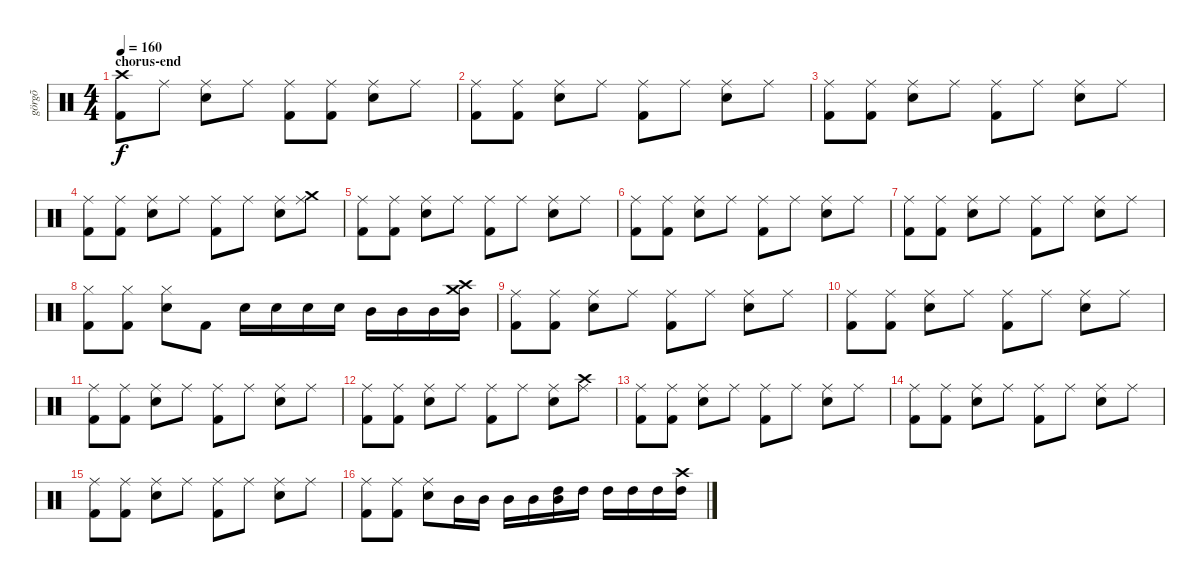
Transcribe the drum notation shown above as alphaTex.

\track ("görgõ" "görgõ") {instrument percussion}
\staff {score}
\articulation defaults
\ts (4 4)
\section ("" "chorus-end")
\tempo 160
\clef neutral
\ks c
("Crash high (hit)" "Kick (hit) 2").8{dy f} "Ride (middle)".8 ("Ride (middle)" "Snare (hit) 2").8 "Ride (middle)".8 ("Ride (middle)" "Kick (hit) 2").8 ("Ride (middle)" "Kick (hit) 2").8 ("Ride (middle)" "Snare (hit) 2").8 "Ride (middle)".8 |
("Ride (middle)" "Kick (hit) 2").8 ("Ride (middle)" "Kick (hit) 2").8 ("Ride (middle)" "Snare (hit) 2").8 "Ride (middle)".8 ("Ride (middle)" "Kick (hit) 2").8 "Ride (middle)".8 ("Ride (middle)" "Snare (hit) 2").8 "Ride (middle)".8 |
("Ride (middle)" "Kick (hit) 2").8 ("Ride (middle)" "Kick (hit) 2").8 ("Ride (middle)" "Snare (hit) 2").8 "Ride (middle)".8 ("Ride (middle)" "Kick (hit) 2").8 "Ride (middle)".8 ("Ride (middle)" "Snare (hit) 2").8 "Ride (middle)".8 |
("Ride (middle)" "Kick (hit) 2").8 ("Ride (middle)" "Kick (hit) 2").8 ("Ride (middle)" "Snare (hit) 2").8 "Ride (middle)".8 ("Ride (middle)" "Kick (hit) 2").8 "Ride (middle)".8 ("Ride (middle)" "Snare (hit) 2").8 ("Ride (middle)" "Crash medium (hit)").8 |
("Ride (middle)" "Kick (hit) 2").8 ("Ride (middle)" "Kick (hit) 2").8 ("Ride (middle)" "Snare (hit) 2").8 "Ride (middle)".8 ("Ride (middle)" "Kick (hit) 2").8 "Ride (middle)".8 ("Ride (middle)" "Snare (hit) 2").8 "Ride (middle)".8 |
("Ride (middle)" "Kick (hit) 2").8 ("Ride (middle)" "Kick (hit) 2").8 ("Ride (middle)" "Snare (hit) 2").8 "Ride (middle)".8 ("Ride (middle)" "Kick (hit) 2").8 "Ride (middle)".8 ("Ride (middle)" "Snare (hit) 2").8 "Ride (middle)".8 |
("Ride (middle)" "Kick (hit) 2").8 ("Ride (middle)" "Kick (hit) 2").8 ("Ride (middle)" "Snare (hit) 2").8 "Ride (middle)".8 ("Ride (middle)" "Kick (hit) 2").8 "Ride (middle)".8 ("Ride (middle)" "Snare (hit) 2").8 "Ride (middle)".8 |
("Hi-Hat (closed)" "Kick (hit) 2").8 ("Hi-Hat (closed)" "Kick (hit) 2").8 ("Hi-Hat (closed)" "Snare (hit) 2").8 "Kick (hit) 2".8 "Snare (hit) 2".16 "Snare (hit) 2".16 "Snare (hit) 2".16 "Snare (hit) 2".16 "Mid Tom (hit)".16 "Mid Tom (hit)".16 "Mid Tom (hit)".16 ("Mid Tom (hit)" "Crash high (hit)" "Crash medium (hit)").16 |
("Ride (middle)" "Kick (hit) 2").8 ("Ride (middle)" "Kick (hit) 2").8 ("Ride (middle)" "Snare (hit) 2").8 "Ride (middle)".8 ("Ride (middle)" "Kick (hit) 2").8 "Ride (middle)".8 ("Ride (middle)" "Snare (hit) 2").8 "Ride (middle)".8 |
("Ride (middle)" "Kick (hit) 2").8 ("Ride (middle)" "Kick (hit) 2").8 ("Ride (middle)" "Snare (hit) 2").8 "Ride (middle)".8 ("Ride (middle)" "Kick (hit) 2").8 "Ride (middle)".8 ("Ride (middle)" "Snare (hit) 2").8 "Ride (middle)".8 |
("Ride (middle)" "Kick (hit) 2").8 ("Ride (middle)" "Kick (hit) 2").8 ("Ride (middle)" "Snare (hit) 2").8 "Ride (middle)".8 ("Ride (middle)" "Kick (hit) 2").8 "Ride (middle)".8 ("Ride (middle)" "Snare (hit) 2").8 "Ride (middle)".8 |
("Ride (middle)" "Kick (hit) 2").8 ("Ride (middle)" "Kick (hit) 2").8 ("Ride (middle)" "Snare (hit) 2").8 "Ride (middle)".8 ("Ride (middle)" "Kick (hit) 2").8 "Ride (middle)".8 ("Ride (middle)" "Snare (hit) 2").8 ("Ride (middle)" "Crash high (hit)").8 |
("Ride (middle)" "Kick (hit) 2").8 ("Ride (middle)" "Kick (hit) 2").8 ("Ride (middle)" "Snare (hit) 2").8 "Ride (middle)".8 ("Ride (middle)" "Kick (hit) 2").8 "Ride (middle)".8 ("Ride (middle)" "Snare (hit) 2").8 "Ride (middle)".8 |
("Ride (middle)" "Kick (hit) 2").8 ("Ride (middle)" "Kick (hit) 2").8 ("Ride (middle)" "Snare (hit) 2").8 "Ride (middle)".8 ("Ride (middle)" "Kick (hit) 2").8 "Ride (middle)".8 ("Ride (middle)" "Snare (hit) 2").8 "Ride (middle)".8 |
("Ride (middle)" "Kick (hit) 2").8 ("Ride (middle)" "Kick (hit) 2").8 ("Ride (middle)" "Snare (hit) 2").8 "Ride (middle)".8 ("Ride (middle)" "Kick (hit) 2").8 "Ride (middle)".8 ("Ride (middle)" "Snare (hit) 2").8 "Ride (middle)".8 |
("Ride (middle)" "Kick (hit) 2").8 ("Ride (middle)" "Kick (hit) 2").8 ("Ride (middle)" "Snare (hit) 2").8 "Mid Tom (hit)".16 "Mid Tom (hit)".16 "Mid Tom (hit)".16 "Mid Tom (hit)".16 ("High Tom (hit)" "Mid Tom (hit)").16 "High Tom (hit)".16 "High Tom (hit)".16 "High Tom (hit)".16 "High Tom (hit)".16 ("High Tom (hit)" "Crash high (hit)").16
